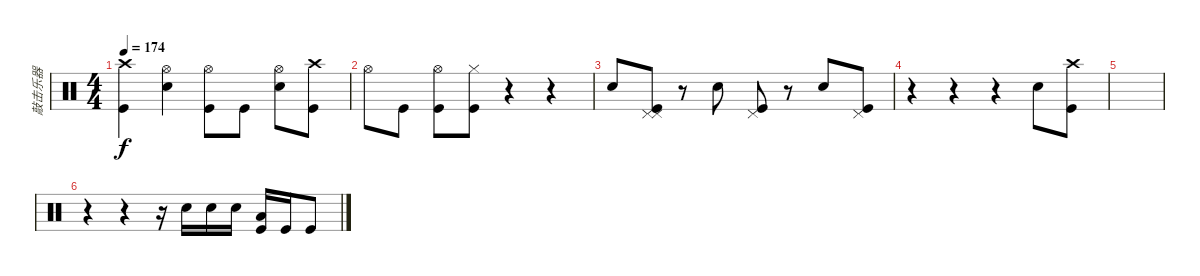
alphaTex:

\track ("敲击乐器" "敲击乐器") {instrument percussion}
\staff {score}
\articulation defaults
\ts (4 4)
\tempo 174
\clef neutral
\ks c
("Kick (hit)" "Crash high (hit)").4{dy f} ("Hi-Hat (open)" "Electric Snare (hit)").4 ("Hi-Hat (open)" "Kick (hit)").8 "Kick (hit)".8 ("Hi-Hat (open)" "Electric Snare (hit)").8 ("Kick (hit)" "Crash high (hit)").8 |
"Hi-Hat (open)".8 "Kick (hit)".8 ("Hi-Hat (open)" "Kick (hit)").8 ("Kick (hit)" "Hi-Hat (closed)").8 r.4 r.4 |
"Electric Snare (hit)".8 ("Kick (hit)" "Pedal Hi-Hat (hit)" "Pedal Hi-Hat (hit)").8 r.8 "Electric Snare (hit)".8 ("Kick (hit)" "Pedal Hi-Hat (hit)").8 r.8 "Electric Snare (hit)".8 ("Kick (hit)" "Pedal Hi-Hat (hit)").8 |
r.4 r.4 r.4 "Electric Snare (hit)".8 ("Kick (hit)" "Crash high (hit)").8 |
|
r.4 r.4 r.16 "Snare (hit) 2".16 "Snare (hit) 2".16 "Electric Snare (hit)".16 ("Kick (hit)" "Low Floor Tom (hit)").16 "Kick (hit)".16 "Kick (hit)".8
